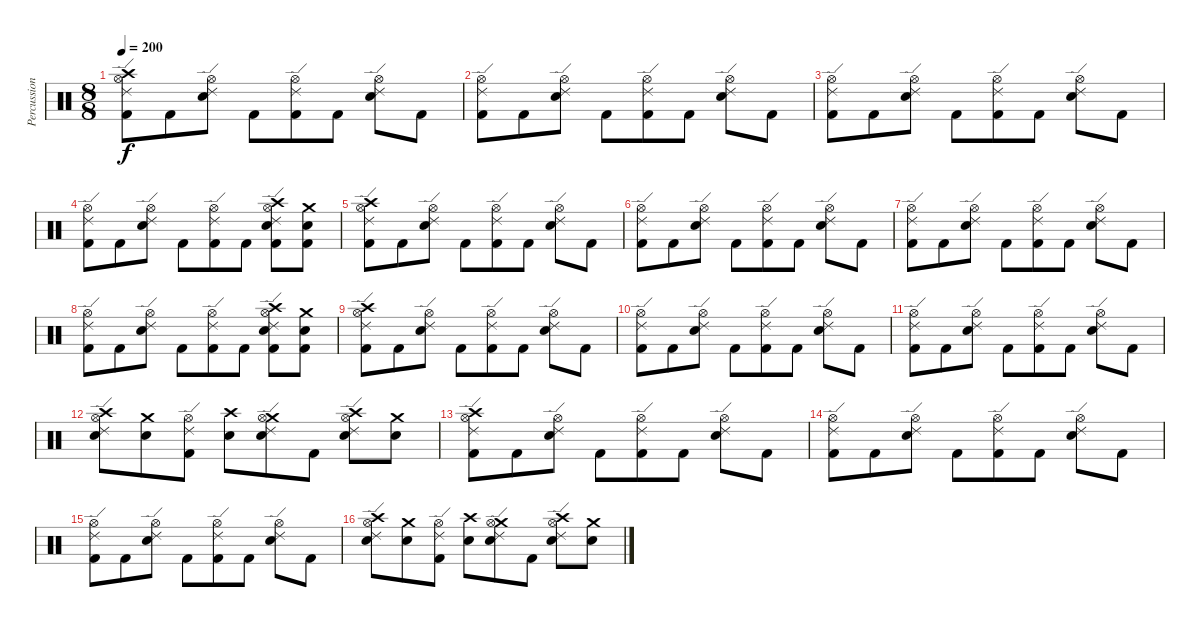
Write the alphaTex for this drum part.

\track ("Percussions" "Percussion") {instrument percussion}
\staff {score}
\articulation defaults
\ts (8 8)
\tempo 200
\clef neutral
\ks c
("Crash high (hit)" "Hi-Hat (open)" "Ride (edge) 2" "Kick (hit) 2").8{dy f} "Kick (hit) 2".8 ("Hi-Hat (open)" "Ride (edge) 2" "Electric Snare (hit)").8 "Kick (hit) 2".8 ("Hi-Hat (open)" "Ride (edge) 2" "Kick (hit) 2").8 "Kick (hit) 2".8 ("Hi-Hat (open)" "Ride (edge) 2" "Electric Snare (hit)").8 "Kick (hit) 2".8 |
("Hi-Hat (open)" "Ride (edge) 2" "Kick (hit) 2").8 "Kick (hit) 2".8 ("Hi-Hat (open)" "Ride (edge) 2" "Electric Snare (hit)").8 "Kick (hit) 2".8 ("Hi-Hat (open)" "Ride (edge) 2" "Kick (hit) 2").8 "Kick (hit) 2".8 ("Hi-Hat (open)" "Ride (edge) 2" "Electric Snare (hit)").8 "Kick (hit) 2".8 |
("Hi-Hat (open)" "Ride (edge) 2" "Kick (hit) 2").8 "Kick (hit) 2".8 ("Hi-Hat (open)" "Ride (edge) 2" "Electric Snare (hit)").8 "Kick (hit) 2".8 ("Hi-Hat (open)" "Ride (edge) 2" "Kick (hit) 2").8 "Kick (hit) 2".8 ("Hi-Hat (open)" "Ride (edge) 2" "Electric Snare (hit)").8 "Kick (hit) 2".8 |
("Hi-Hat (open)" "Ride (edge) 2" "Kick (hit) 2").8 "Kick (hit) 2".8 ("Hi-Hat (open)" "Ride (edge) 2" "Electric Snare (hit)").8 "Kick (hit) 2".8 ("Hi-Hat (open)" "Ride (edge) 2" "Kick (hit) 2").8 "Kick (hit) 2".8 ("Crash high (hit)" "Hi-Hat (open)" "Ride (edge) 2" "Electric Snare (hit)" "Kick (hit) 2").8 ("Crash medium (hit)" "Electric Snare (hit)" "Kick (hit) 2").8 |
("Crash high (hit)" "Hi-Hat (open)" "Ride (edge) 2" "Kick (hit) 2").8 "Kick (hit) 2".8 ("Hi-Hat (open)" "Ride (edge) 2" "Electric Snare (hit)").8 "Kick (hit) 2".8 ("Hi-Hat (open)" "Ride (edge) 2" "Kick (hit) 2").8 "Kick (hit) 2".8 ("Hi-Hat (open)" "Ride (edge) 2" "Electric Snare (hit)").8 "Kick (hit) 2".8 |
("Hi-Hat (open)" "Ride (edge) 2" "Kick (hit) 2").8 "Kick (hit) 2".8 ("Hi-Hat (open)" "Ride (edge) 2" "Electric Snare (hit)").8 "Kick (hit) 2".8 ("Hi-Hat (open)" "Ride (edge) 2" "Kick (hit) 2").8 "Kick (hit) 2".8 ("Hi-Hat (open)" "Ride (edge) 2" "Electric Snare (hit)").8 "Kick (hit) 2".8 |
("Hi-Hat (open)" "Ride (edge) 2" "Kick (hit) 2").8 "Kick (hit) 2".8 ("Hi-Hat (open)" "Ride (edge) 2" "Electric Snare (hit)").8 "Kick (hit) 2".8 ("Hi-Hat (open)" "Ride (edge) 2" "Kick (hit) 2").8 "Kick (hit) 2".8 ("Hi-Hat (open)" "Ride (edge) 2" "Electric Snare (hit)").8 "Kick (hit) 2".8 |
("Hi-Hat (open)" "Ride (edge) 2" "Kick (hit) 2").8 "Kick (hit) 2".8 ("Hi-Hat (open)" "Ride (edge) 2" "Electric Snare (hit)").8 "Kick (hit) 2".8 ("Hi-Hat (open)" "Ride (edge) 2" "Kick (hit) 2").8 "Kick (hit) 2".8 ("Crash high (hit)" "Hi-Hat (open)" "Ride (edge) 2" "Electric Snare (hit)" "Kick (hit) 2").8 ("Crash medium (hit)" "Electric Snare (hit)" "Kick (hit) 2").8 |
("Crash high (hit)" "Hi-Hat (open)" "Ride (edge) 2" "Kick (hit) 2").8 "Kick (hit) 2".8 ("Hi-Hat (open)" "Ride (edge) 2" "Electric Snare (hit)").8 "Kick (hit) 2".8 ("Hi-Hat (open)" "Ride (edge) 2" "Kick (hit) 2").8 "Kick (hit) 2".8 ("Hi-Hat (open)" "Ride (edge) 2" "Electric Snare (hit)").8 "Kick (hit) 2".8 |
("Hi-Hat (open)" "Ride (edge) 2" "Kick (hit) 2").8 "Kick (hit) 2".8 ("Hi-Hat (open)" "Ride (edge) 2" "Electric Snare (hit)").8 "Kick (hit) 2".8 ("Hi-Hat (open)" "Ride (edge) 2" "Kick (hit) 2").8 "Kick (hit) 2".8 ("Hi-Hat (open)" "Ride (edge) 2" "Electric Snare (hit)").8 "Kick (hit) 2".8 |
("Hi-Hat (open)" "Ride (edge) 2" "Kick (hit) 2").8 "Kick (hit) 2".8 ("Hi-Hat (open)" "Ride (edge) 2" "Electric Snare (hit)").8 "Kick (hit) 2".8 ("Hi-Hat (open)" "Ride (edge) 2" "Kick (hit) 2").8 "Kick (hit) 2".8 ("Hi-Hat (open)" "Ride (edge) 2" "Electric Snare (hit)").8 "Kick (hit) 2".8 |
("Crash high (hit)" "Ride (edge) 2" "Hi-Hat (open)" "Electric Snare (hit)").8 ("Crash medium (hit)" "Electric Snare (hit)").8 ("Ride (edge) 2" "Hi-Hat (open)" "Kick (hit) 2").8 ("Crash high (hit)" "Electric Snare (hit)").8 ("Crash medium (hit)" "Ride (edge) 2" "Hi-Hat (open)" "Electric Snare (hit)").8 "Kick (hit) 2".8 ("Crash high (hit)" "Ride (edge) 2" "Hi-Hat (open)" "Electric Snare (hit)").8 ("Crash medium (hit)" "Electric Snare (hit)").8 |
("Crash high (hit)" "Hi-Hat (open)" "Ride (edge) 2" "Kick (hit) 2").8 "Kick (hit) 2".8 ("Hi-Hat (open)" "Ride (edge) 2" "Electric Snare (hit)").8 "Kick (hit) 2".8 ("Hi-Hat (open)" "Ride (edge) 2" "Kick (hit) 2").8 "Kick (hit) 2".8 ("Hi-Hat (open)" "Ride (edge) 2" "Electric Snare (hit)").8 "Kick (hit) 2".8 |
("Hi-Hat (open)" "Ride (edge) 2" "Kick (hit) 2").8 "Kick (hit) 2".8 ("Hi-Hat (open)" "Ride (edge) 2" "Electric Snare (hit)").8 "Kick (hit) 2".8 ("Hi-Hat (open)" "Ride (edge) 2" "Kick (hit) 2").8 "Kick (hit) 2".8 ("Hi-Hat (open)" "Ride (edge) 2" "Electric Snare (hit)").8 "Kick (hit) 2".8 |
("Hi-Hat (open)" "Ride (edge) 2" "Kick (hit) 2").8 "Kick (hit) 2".8 ("Hi-Hat (open)" "Ride (edge) 2" "Electric Snare (hit)").8 "Kick (hit) 2".8 ("Hi-Hat (open)" "Ride (edge) 2" "Kick (hit) 2").8 "Kick (hit) 2".8 ("Hi-Hat (open)" "Ride (edge) 2" "Electric Snare (hit)").8 "Kick (hit) 2".8 |
("Crash high (hit)" "Ride (edge) 2" "Hi-Hat (open)" "Electric Snare (hit)").8 ("Crash medium (hit)" "Electric Snare (hit)").8 ("Ride (edge) 2" "Hi-Hat (open)" "Kick (hit) 2").8 ("Crash high (hit)" "Electric Snare (hit)").8 ("Crash medium (hit)" "Ride (edge) 2" "Hi-Hat (open)" "Electric Snare (hit)").8 "Kick (hit) 2".8 ("Crash high (hit)" "Ride (edge) 2" "Hi-Hat (open)" "Electric Snare (hit)").8 ("Crash medium (hit)" "Electric Snare (hit)").8
